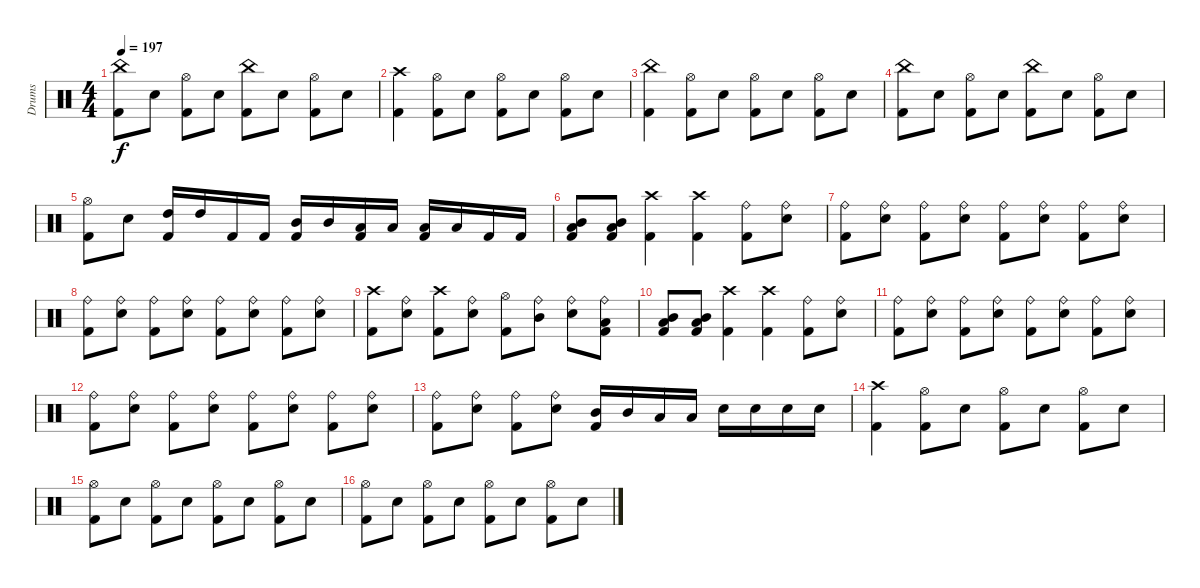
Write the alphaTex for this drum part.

\track ("Drums" "Drums") {instrument percussion}
\staff {score}
\articulation defaults
\ts (4 4)
\tempo 197
\clef neutral
\ks c
("China (hit)" "Kick (hit) 2").8{dy f} "Electric Snare (hit)".8 ("Hi-Hat (open)" "Kick (hit) 2").8 "Electric Snare (hit)".8 ("China (hit)" "Kick (hit) 2").8 "Electric Snare (hit)".8 ("Hi-Hat (open)" "Kick (hit) 2").8 "Electric Snare (hit)".8 |
("Crash high (hit)" "Kick (hit) 2").4 ("Hi-Hat (open)" "Kick (hit) 2").8 "Electric Snare (hit)".8 ("Hi-Hat (open)" "Kick (hit) 2").8 "Electric Snare (hit)".8 ("Hi-Hat (open)" "Kick (hit) 2").8 "Electric Snare (hit)".8 |
("China (hit)" "Kick (hit) 2").4 ("Hi-Hat (open)" "Kick (hit) 2").8 "Electric Snare (hit)".8 ("Hi-Hat (open)" "Kick (hit) 2").8 "Electric Snare (hit)".8 ("Hi-Hat (open)" "Kick (hit) 2").8 "Electric Snare (hit)".8 |
("China (hit)" "Kick (hit) 2").8 "Electric Snare (hit)".8 ("Hi-Hat (open)" "Kick (hit) 2").8 "Electric Snare (hit)".8 ("China (hit)" "Kick (hit) 2").8 "Electric Snare (hit)".8 ("Hi-Hat (open)" "Kick (hit) 2").8 "Electric Snare (hit)".8 |
("Hi-Hat (open)" "Kick (hit) 2").8 "Electric Snare (hit)".8 ("High Tom (hit)" "Kick (hit) 2").16 "High Tom (hit)".16 "Kick (hit) 2".16 "Kick (hit) 2".16 ("Mid Tom (hit)" "Kick (hit) 2").16 "Mid Tom (hit)".16 ("Low Tom (hit)" "Kick (hit) 2").16 "Low Tom (hit)".16 ("Low Tom (hit)" "Kick (hit) 2").16 "Low Tom (hit)".16 "Kick (hit) 2".16 "Kick (hit) 2".16 |
("Mid Tom (hit)" "Low Tom (hit)" "Kick (hit) 2").8 ("Mid Tom (hit)" "Low Tom (hit)" "Kick (hit) 2").8 ("Crash high (hit)" "Kick (hit) 2").4 ("Crash high (hit)" "Kick (hit) 2").4 ("Ride (bell)" "Kick (hit) 2").8 ("Ride (bell)" "Electric Snare (hit)").8 |
("Ride (bell)" "Kick (hit) 2").8 ("Ride (bell)" "Electric Snare (hit)").8 ("Ride (bell)" "Kick (hit) 2").8 ("Ride (bell)" "Electric Snare (hit)").8 ("Ride (bell)" "Kick (hit) 2").8 ("Ride (bell)" "Electric Snare (hit)").8 ("Ride (bell)" "Kick (hit) 2").8 ("Ride (bell)" "Electric Snare (hit)").8 |
("Ride (bell)" "Kick (hit) 2").8 ("Ride (bell)" "Electric Snare (hit)").8 ("Ride (bell)" "Kick (hit) 2").8 ("Ride (bell)" "Electric Snare (hit)").8 ("Ride (bell)" "Kick (hit) 2").8 ("Ride (bell)" "Electric Snare (hit)").8 ("Ride (bell)" "Kick (hit) 2").8 ("Ride (bell)" "Electric Snare (hit)").8 |
("Crash high (hit)" "Kick (hit) 2").8 ("Ride (bell)" "Electric Snare (hit)").8 ("Crash high (hit)" "Kick (hit) 2").8 ("Ride (bell)" "Electric Snare (hit)").8 ("Hi-Hat (open)" "Kick (hit) 2").8 ("Ride (bell)" "Mid Tom (hit)").8 ("Ride (bell)" "Electric Snare (hit)").8 ("Ride (bell)" "Low Tom (hit)" "Kick (hit) 2").8 |
("Mid Tom (hit)" "Low Tom (hit)" "Kick (hit) 2").8 ("Mid Tom (hit)" "Low Tom (hit)" "Kick (hit) 2").8 ("Crash high (hit)" "Kick (hit) 2").4 ("Crash high (hit)" "Kick (hit) 2").4 ("Ride (bell)" "Kick (hit) 2").8 ("Ride (bell)" "Electric Snare (hit)").8 |
("Ride (bell)" "Kick (hit) 2").8 ("Ride (bell)" "Electric Snare (hit)").8 ("Ride (bell)" "Kick (hit) 2").8 ("Ride (bell)" "Electric Snare (hit)").8 ("Ride (bell)" "Kick (hit) 2").8 ("Ride (bell)" "Electric Snare (hit)").8 ("Ride (bell)" "Kick (hit) 2").8 ("Ride (bell)" "Electric Snare (hit)").8 |
("Ride (bell)" "Kick (hit) 2").8 ("Ride (bell)" "Electric Snare (hit)").8 ("Ride (bell)" "Kick (hit) 2").8 ("Ride (bell)" "Electric Snare (hit)").8 ("Ride (bell)" "Kick (hit) 2").8 ("Ride (bell)" "Electric Snare (hit)").8 ("Ride (bell)" "Kick (hit) 2").8 ("Ride (bell)" "Electric Snare (hit)").8 |
("Ride (bell)" "Kick (hit) 2").8 ("Ride (bell)" "Electric Snare (hit)").8 ("Ride (bell)" "Kick (hit) 2").8 ("Ride (bell)" "Electric Snare (hit)").8 ("Mid Tom (hit)" "Kick (hit) 2").16 "Mid Tom (hit)".16 "Low Tom (hit)".16 "Low Tom (hit)".16 "Electric Snare (hit)".16 "Electric Snare (hit)".16 "Electric Snare (hit)".16 "Electric Snare (hit)".16 |
("Crash high (hit)" "Kick (hit) 2").4 ("Hi-Hat (open)" "Kick (hit) 2").8 "Electric Snare (hit)".8 ("Hi-Hat (open)" "Kick (hit) 2").8 "Electric Snare (hit)".8 ("Hi-Hat (open)" "Kick (hit) 2").8 "Electric Snare (hit)".8 |
("Hi-Hat (open)" "Kick (hit) 2").8 "Electric Snare (hit)".8 ("Hi-Hat (open)" "Kick (hit) 2").8 "Electric Snare (hit)".8 ("Hi-Hat (open)" "Kick (hit) 2").8 "Electric Snare (hit)".8 ("Hi-Hat (open)" "Kick (hit) 2").8 "Electric Snare (hit)".8 |
("Hi-Hat (open)" "Kick (hit) 2").8 "Electric Snare (hit)".8 ("Hi-Hat (open)" "Kick (hit) 2").8 "Electric Snare (hit)".8 ("Hi-Hat (open)" "Kick (hit) 2").8 "Electric Snare (hit)".8 ("Hi-Hat (open)" "Kick (hit) 2").8 "Electric Snare (hit)".8
